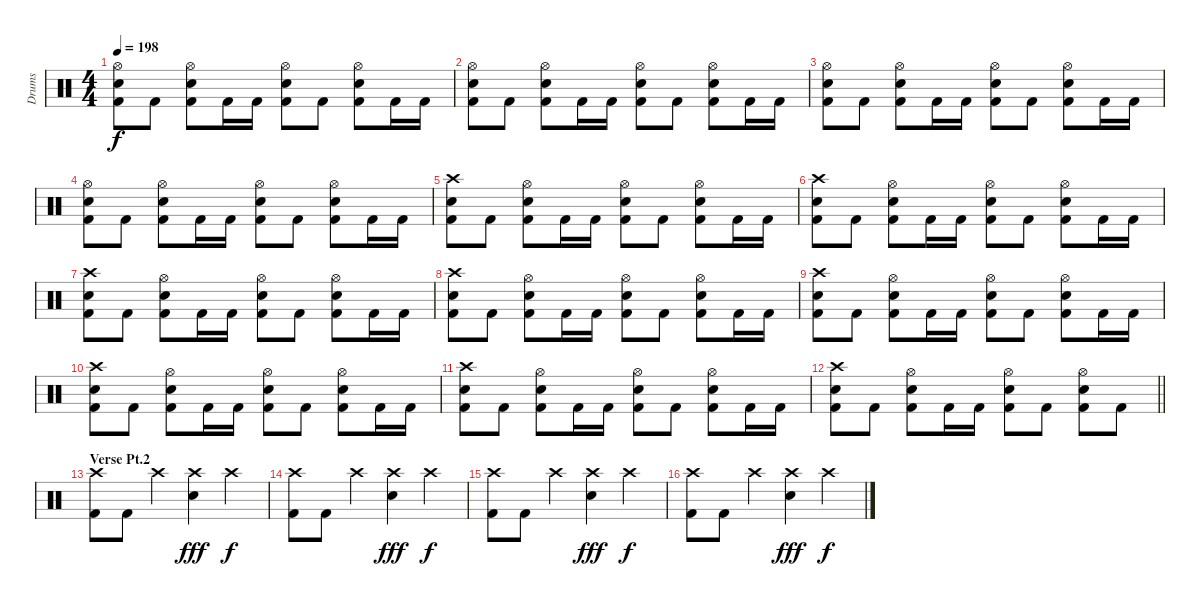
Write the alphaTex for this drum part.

\track ("Drums" "Drums") {instrument percussion}
\staff {score}
\articulation defaults
\ts (4 4)
\tempo 198
\clef neutral
\ks c
("Hi-Hat (open)" "Electric Snare (hit)" "Kick (hit) 2").8{dy f} "Kick (hit) 2".8 ("Hi-Hat (open)" "Electric Snare (hit)" "Kick (hit) 2").8 "Kick (hit) 2".16 "Kick (hit) 2".16 ("Hi-Hat (open)" "Electric Snare (hit)" "Kick (hit) 2").8 "Kick (hit) 2".8 ("Hi-Hat (open)" "Electric Snare (hit)" "Kick (hit) 2").8 "Kick (hit) 2".16 "Kick (hit) 2".16 |
("Hi-Hat (open)" "Electric Snare (hit)" "Kick (hit) 2").8 "Kick (hit) 2".8 ("Hi-Hat (open)" "Electric Snare (hit)" "Kick (hit) 2").8 "Kick (hit) 2".16 "Kick (hit) 2".16 ("Hi-Hat (open)" "Electric Snare (hit)" "Kick (hit) 2").8 "Kick (hit) 2".8 ("Hi-Hat (open)" "Electric Snare (hit)" "Kick (hit) 2").8 "Kick (hit) 2".16 "Kick (hit) 2".16 |
("Hi-Hat (open)" "Electric Snare (hit)" "Kick (hit) 2").8 "Kick (hit) 2".8 ("Hi-Hat (open)" "Electric Snare (hit)" "Kick (hit) 2").8 "Kick (hit) 2".16 "Kick (hit) 2".16 ("Hi-Hat (open)" "Electric Snare (hit)" "Kick (hit) 2").8 "Kick (hit) 2".8 ("Hi-Hat (open)" "Electric Snare (hit)" "Kick (hit) 2").8 "Kick (hit) 2".16 "Kick (hit) 2".16 |
("Hi-Hat (open)" "Electric Snare (hit)" "Kick (hit) 2").8 "Kick (hit) 2".8 ("Hi-Hat (open)" "Electric Snare (hit)" "Kick (hit) 2").8 "Kick (hit) 2".16 "Kick (hit) 2".16 ("Hi-Hat (open)" "Electric Snare (hit)" "Kick (hit) 2").8 "Kick (hit) 2".8 ("Hi-Hat (open)" "Electric Snare (hit)" "Kick (hit) 2").8 "Kick (hit) 2".16 "Kick (hit) 2".16 |
("Crash high (hit)" "Electric Snare (hit)" "Kick (hit) 2").8 "Kick (hit) 2".8 ("Hi-Hat (open)" "Electric Snare (hit)" "Kick (hit) 2").8 "Kick (hit) 2".16 "Kick (hit) 2".16 ("Hi-Hat (open)" "Electric Snare (hit)" "Kick (hit) 2").8 "Kick (hit) 2".8 ("Hi-Hat (open)" "Electric Snare (hit)" "Kick (hit) 2").8 "Kick (hit) 2".16 "Kick (hit) 2".16 |
("Crash high (hit)" "Electric Snare (hit)" "Kick (hit) 2").8 "Kick (hit) 2".8 ("Hi-Hat (open)" "Electric Snare (hit)" "Kick (hit) 2").8 "Kick (hit) 2".16 "Kick (hit) 2".16 ("Hi-Hat (open)" "Electric Snare (hit)" "Kick (hit) 2").8 "Kick (hit) 2".8 ("Hi-Hat (open)" "Electric Snare (hit)" "Kick (hit) 2").8 "Kick (hit) 2".16 "Kick (hit) 2".16 |
("Crash high (hit)" "Electric Snare (hit)" "Kick (hit) 2").8 "Kick (hit) 2".8 ("Hi-Hat (open)" "Electric Snare (hit)" "Kick (hit) 2").8 "Kick (hit) 2".16 "Kick (hit) 2".16 ("Hi-Hat (open)" "Electric Snare (hit)" "Kick (hit) 2").8 "Kick (hit) 2".8 ("Hi-Hat (open)" "Electric Snare (hit)" "Kick (hit) 2").8 "Kick (hit) 2".16 "Kick (hit) 2".16 |
("Crash high (hit)" "Electric Snare (hit)" "Kick (hit) 2").8 "Kick (hit) 2".8 ("Hi-Hat (open)" "Electric Snare (hit)" "Kick (hit) 2").8 "Kick (hit) 2".16 "Kick (hit) 2".16 ("Hi-Hat (open)" "Electric Snare (hit)" "Kick (hit) 2").8 "Kick (hit) 2".8 ("Hi-Hat (open)" "Electric Snare (hit)" "Kick (hit) 2").8 "Kick (hit) 2".16 "Kick (hit) 2".16 |
("Crash high (hit)" "Electric Snare (hit)" "Kick (hit) 2").8 "Kick (hit) 2".8 ("Hi-Hat (open)" "Electric Snare (hit)" "Kick (hit) 2").8 "Kick (hit) 2".16 "Kick (hit) 2".16 ("Hi-Hat (open)" "Electric Snare (hit)" "Kick (hit) 2").8 "Kick (hit) 2".8 ("Hi-Hat (open)" "Electric Snare (hit)" "Kick (hit) 2").8 "Kick (hit) 2".16 "Kick (hit) 2".16 |
("Crash high (hit)" "Electric Snare (hit)" "Kick (hit) 2").8 "Kick (hit) 2".8 ("Hi-Hat (open)" "Electric Snare (hit)" "Kick (hit) 2").8 "Kick (hit) 2".16 "Kick (hit) 2".16 ("Hi-Hat (open)" "Electric Snare (hit)" "Kick (hit) 2").8 "Kick (hit) 2".8 ("Hi-Hat (open)" "Electric Snare (hit)" "Kick (hit) 2").8 "Kick (hit) 2".16 "Kick (hit) 2".16 |
("Crash high (hit)" "Electric Snare (hit)" "Kick (hit) 2").8 "Kick (hit) 2".8 ("Hi-Hat (open)" "Electric Snare (hit)" "Kick (hit) 2").8 "Kick (hit) 2".16 "Kick (hit) 2".16 ("Hi-Hat (open)" "Electric Snare (hit)" "Kick (hit) 2").8 "Kick (hit) 2".8 ("Hi-Hat (open)" "Electric Snare (hit)" "Kick (hit) 2").8 "Kick (hit) 2".16 "Kick (hit) 2".16 |
\barLineRight lightlight
("Crash high (hit)" "Electric Snare (hit)" "Kick (hit) 2").8 "Kick (hit) 2".8 ("Hi-Hat (open)" "Electric Snare (hit)" "Kick (hit) 2").8 "Kick (hit) 2".16 "Kick (hit) 2".16 ("Hi-Hat (open)" "Electric Snare (hit)" "Kick (hit) 2").8 "Kick (hit) 2".8 ("Hi-Hat (open)" "Electric Snare (hit)" "Kick (hit) 2").8 "Kick (hit) 2".8 |
\section ("" "Verse Pt.2")
("Crash high (hit)" "Kick (hit) 2").8 "Kick (hit) 2".8 "Crash high (hit)".4 ("Crash high (hit)" "Electric Snare (hit)").4{dy fff} "Crash high (hit)".4{dy f} |
("Crash high (hit)" "Kick (hit) 2").8 "Kick (hit) 2".8 "Crash high (hit)".4 ("Crash high (hit)" "Electric Snare (hit)").4{dy fff} "Crash high (hit)".4{dy f} |
("Crash high (hit)" "Kick (hit) 2").8 "Kick (hit) 2".8 "Crash high (hit)".4 ("Crash high (hit)" "Electric Snare (hit)").4{dy fff} "Crash high (hit)".4{dy f} |
("Crash high (hit)" "Kick (hit) 2").8 "Kick (hit) 2".8 "Crash high (hit)".4 ("Crash high (hit)" "Electric Snare (hit)").4{dy fff} "Crash high (hit)".4{dy f}
